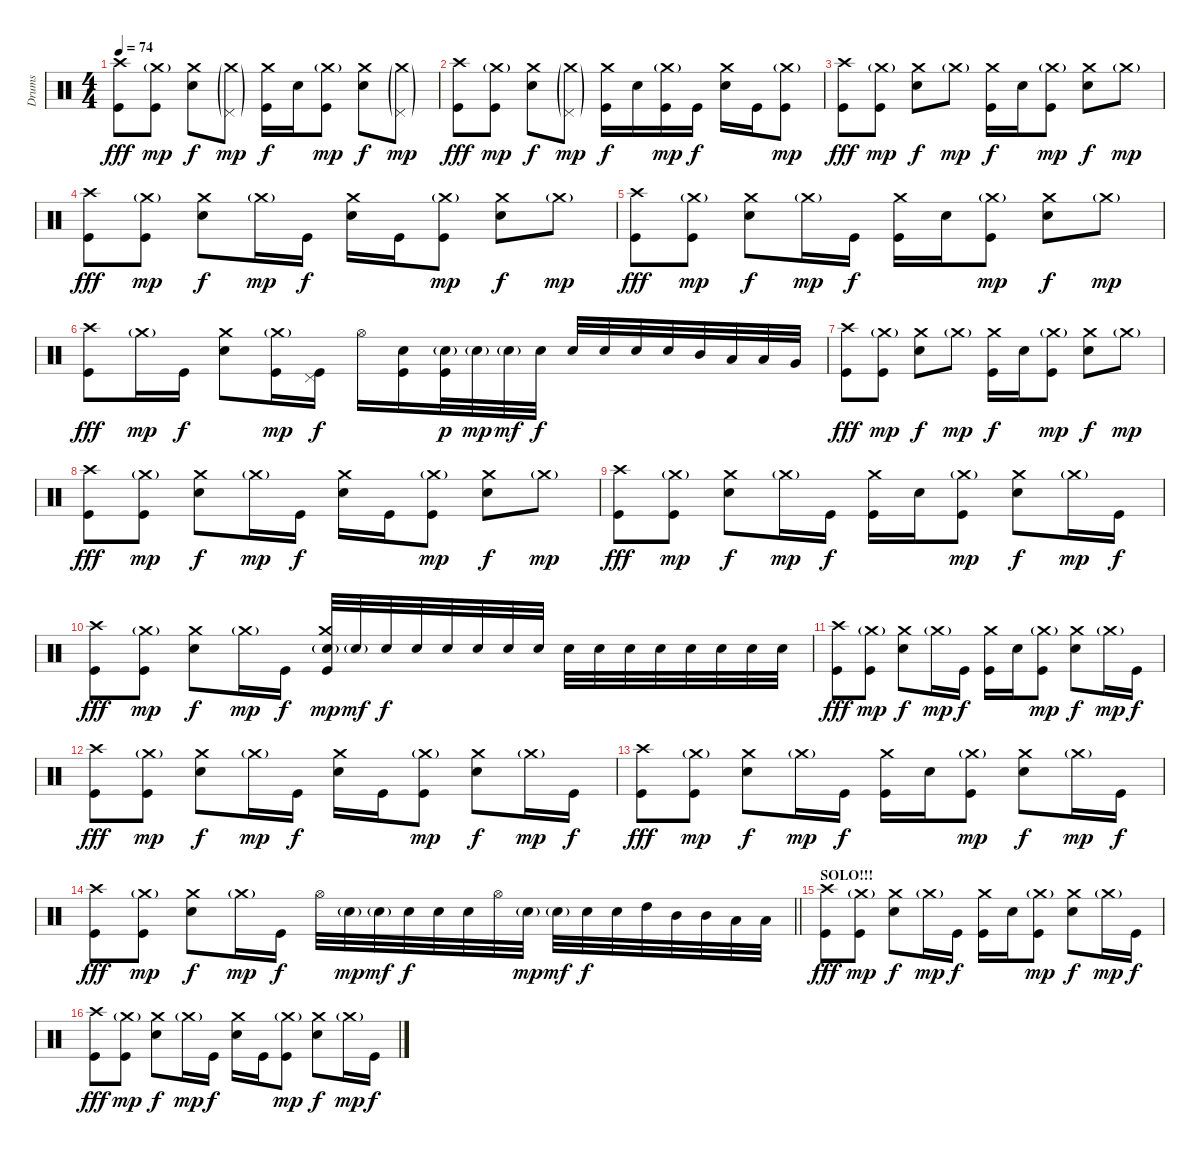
\track ("Drums" "Drums") {instrument percussion}
\staff {score}
\articulation defaults
\ts (4 4)
\tempo 74
\clef neutral
\ks c
("Crash high (hit)" "Kick (hit)").8{dy fff} ("Crash medium (hit)"{g} "Kick (hit)").8{dy mp} ("Crash medium (hit)" "Snare (hit) 2").8{dy f} ("Crash medium (hit)"{g} "Pedal Hi-Hat (hit)"{g}).8{dy mp} ("Crash medium (hit)" "Kick (hit)").16{dy f} "Snare (hit) 2".16 ("Crash medium (hit)"{g} "Kick (hit)").8{dy mp} ("Crash medium (hit)" "Snare (hit) 2").8{dy f} ("Crash medium (hit)"{g} "Pedal Hi-Hat (hit)"{g}).8{dy mp} |
("Crash high (hit)" "Kick (hit)").8{dy fff} ("Crash medium (hit)"{g} "Kick (hit)").8{dy mp} ("Crash medium (hit)" "Snare (hit) 2").8{dy f} ("Crash medium (hit)"{g} "Pedal Hi-Hat (hit)"{g}).8{dy mp} ("Crash medium (hit)" "Kick (hit)").16{dy f} "Snare (hit) 2".16 ("Crash medium (hit)"{g} "Kick (hit)").16{dy mp} "Kick (hit)".16{dy f} ("Crash medium (hit)" "Snare (hit) 2").16 "Kick (hit)".16 ("Crash medium (hit)"{g} "Kick (hit)").8{dy mp} |
("Crash high (hit)" "Kick (hit)").8{dy fff} ("Crash medium (hit)"{g} "Kick (hit)").8{dy mp} ("Crash medium (hit)" "Snare (hit) 2").8{dy f} "Crash medium (hit)"{g}.8{dy mp} ("Crash medium (hit)" "Kick (hit)").16{dy f} "Snare (hit) 2".16 ("Crash medium (hit)"{g} "Kick (hit)").8{dy mp} ("Crash medium (hit)" "Snare (hit) 2").8{dy f} "Crash medium (hit)"{g}.8{dy mp} |
("Crash high (hit)" "Kick (hit)").8{dy fff} ("Crash medium (hit)"{g} "Kick (hit)").8{dy mp} ("Crash medium (hit)" "Snare (hit) 2").8{dy f} "Crash medium (hit)"{g}.16{dy mp} "Kick (hit)".16{dy f} ("Crash medium (hit)" "Snare (hit) 2").16 "Kick (hit)".16 ("Crash medium (hit)"{g} "Kick (hit)").8{dy mp} ("Crash medium (hit)" "Snare (hit) 2").8{dy f} "Crash medium (hit)"{g}.8{dy mp} |
("Crash high (hit)" "Kick (hit)").8{dy fff} ("Crash medium (hit)"{g} "Kick (hit)").8{dy mp} ("Crash medium (hit)" "Snare (hit) 2").8{dy f} "Crash medium (hit)"{g}.16{dy mp} "Kick (hit)".16{dy f} ("Crash medium (hit)" "Kick (hit)").16 "Snare (hit) 2".16 ("Crash medium (hit)"{g} "Kick (hit)").8{dy mp} ("Crash medium (hit)" "Snare (hit) 2").8{dy f} "Crash medium (hit)"{g}.8{dy mp} |
("Crash high (hit)" "Kick (hit)").8{dy fff} "Crash medium (hit)"{g}.16{dy mp} "Kick (hit)".16{dy f} ("Crash medium (hit)" "Snare (hit) 2").8 ("Crash medium (hit)"{g} "Kick (hit)").16{dy mp} ("Pedal Hi-Hat (hit)" "Kick (hit)").16{dy f} "Hi-Hat (open)".16 ("Snare (hit) 2" "Kick (hit)").16 ("Electric Snare (hit)"{g} "Kick (hit)").32{dy p} "Electric Snare (hit)"{g}.32{dy mp} "Electric Snare (hit)"{g}.32{dy mf} "Electric Snare (hit)".32{dy f} "Electric Snare (hit)".32 "Electric Snare (hit)".32 "Electric Snare (hit)".32 "Electric Snare (hit)".32 "Mid Tom (hit)".32 "Low Tom (hit)".32 "Low Tom (hit)".32 "Very Low Tom (hit)".32 |
("Crash high (hit)" "Kick (hit)").8{dy fff} ("Crash medium (hit)"{g} "Kick (hit)").8{dy mp} ("Crash medium (hit)" "Snare (hit) 2").8{dy f} "Crash medium (hit)"{g}.8{dy mp} ("Crash medium (hit)" "Kick (hit)").16{dy f} "Snare (hit) 2".16 ("Crash medium (hit)"{g} "Kick (hit)").8{dy mp} ("Crash medium (hit)" "Snare (hit) 2").8{dy f} "Crash medium (hit)"{g}.8{dy mp} |
("Crash high (hit)" "Kick (hit)").8{dy fff} ("Crash medium (hit)"{g} "Kick (hit)").8{dy mp} ("Crash medium (hit)" "Snare (hit) 2").8{dy f} "Crash medium (hit)"{g}.16{dy mp} "Kick (hit)".16{dy f} ("Crash medium (hit)" "Snare (hit) 2").16 "Kick (hit)".16 ("Crash medium (hit)"{g} "Kick (hit)").8{dy mp} ("Crash medium (hit)" "Snare (hit) 2").8{dy f} "Crash medium (hit)"{g}.8{dy mp} |
("Crash high (hit)" "Kick (hit)").8{dy fff} ("Crash medium (hit)"{g} "Kick (hit)").8{dy mp} ("Crash medium (hit)" "Snare (hit) 2").8{dy f} "Crash medium (hit)"{g}.16{dy mp} "Kick (hit)".16{dy f} ("Crash medium (hit)" "Kick (hit)").16 "Snare (hit) 2".16 ("Crash medium (hit)"{g} "Kick (hit)").8{dy mp} ("Crash medium (hit)" "Snare (hit) 2").8{dy f} "Crash medium (hit)"{g}.16{dy mp} "Kick (hit)".16{dy f} |
("Crash high (hit)" "Kick (hit)").8{dy fff} ("Crash medium (hit)"{g} "Kick (hit)").8{dy mp} ("Crash medium (hit)" "Snare (hit) 2").8{dy f} "Crash medium (hit)"{g}.16{dy mp} "Kick (hit)".16{dy f} ("Crash medium (hit)" "Electric Snare (hit)"{g} "Kick (hit)").32{dy mp} "Electric Snare (hit)"{g}.32{dy mf} "Electric Snare (hit)".32{dy f} "Electric Snare (hit)".32 "Electric Snare (hit)".32 "Electric Snare (hit)".32 "Electric Snare (hit)".32 "Electric Snare (hit)".32 "Electric Snare (hit)".32 "Electric Snare (hit)".32 "Electric Snare (hit)".32 "Electric Snare (hit)".32 "Electric Snare (hit)".32 "Electric Snare (hit)".32 "Electric Snare (hit)".32 "Electric Snare (hit)".32 |
("Crash high (hit)" "Kick (hit)").8{dy fff} ("Crash medium (hit)"{g} "Kick (hit)").8{dy mp} ("Crash medium (hit)" "Snare (hit) 2").8{dy f} "Crash medium (hit)"{g}.16{dy mp} "Kick (hit)".16{dy f} ("Crash medium (hit)" "Kick (hit)").16 "Snare (hit) 2".16 ("Crash medium (hit)"{g} "Kick (hit)").8{dy mp} ("Crash medium (hit)" "Snare (hit) 2").8{dy f} "Crash medium (hit)"{g}.16{dy mp} "Kick (hit)".16{dy f} |
("Crash high (hit)" "Kick (hit)").8{dy fff} ("Crash medium (hit)"{g} "Kick (hit)").8{dy mp} ("Crash medium (hit)" "Snare (hit) 2").8{dy f} "Crash medium (hit)"{g}.16{dy mp} "Kick (hit)".16{dy f} ("Crash medium (hit)" "Snare (hit) 2").16 "Kick (hit)".16 ("Crash medium (hit)"{g} "Kick (hit)").8{dy mp} ("Crash medium (hit)" "Snare (hit) 2").8{dy f} "Crash medium (hit)"{g}.16{dy mp} "Kick (hit)".16{dy f} |
("Crash high (hit)" "Kick (hit)").8{dy fff} ("Crash medium (hit)"{g} "Kick (hit)").8{dy mp} ("Crash medium (hit)" "Snare (hit) 2").8{dy f} "Crash medium (hit)"{g}.16{dy mp} "Kick (hit)".16{dy f} ("Crash medium (hit)" "Kick (hit)").16 "Snare (hit) 2".16 ("Crash medium (hit)"{g} "Kick (hit)").8{dy mp} ("Crash medium (hit)" "Snare (hit) 2").8{dy f} "Crash medium (hit)"{g}.16{dy mp} "Kick (hit)".16{dy f} |
\barLineRight lightlight
("Crash high (hit)" "Kick (hit)").8{dy fff} ("Crash medium (hit)"{g} "Kick (hit)").8{dy mp} ("Crash medium (hit)" "Snare (hit) 2").8{dy f} "Crash medium (hit)"{g}.16{dy mp} "Kick (hit)".16{dy f} "Hi-Hat (open)".32 "Electric Snare (hit)"{g}.32{dy mp} "Electric Snare (hit)"{g}.32{dy mf} "Electric Snare (hit)".32{dy f} "Electric Snare (hit)".32 "Electric Snare (hit)".32 "Hi-Hat (open)".32 "Electric Snare (hit)"{g}.32{dy mp} "Electric Snare (hit)"{g}.32{dy mf} "Electric Snare (hit)".32{dy f} "Electric Snare (hit)".32 "High Tom (hit)".32 "Mid Tom (hit)".32 "Mid Tom (hit)".32 "Low Tom (hit)".32 "Low Tom (hit)".32 |
\section ("" "SOLO!!!")
("Crash high (hit)" "Kick (hit)").8{dy fff} ("Crash medium (hit)"{g} "Kick (hit)").8{dy mp} ("Crash medium (hit)" "Snare (hit) 2").8{dy f} "Crash medium (hit)"{g}.16{dy mp} "Kick (hit)".16{dy f} ("Crash medium (hit)" "Kick (hit)").16 "Snare (hit) 2".16 ("Crash medium (hit)"{g} "Kick (hit)").8{dy mp} ("Crash medium (hit)" "Snare (hit) 2").8{dy f} "Crash medium (hit)"{g}.16{dy mp} "Kick (hit)".16{dy f} |
("Crash high (hit)" "Kick (hit)").8{dy fff} ("Crash medium (hit)"{g} "Kick (hit)").8{dy mp} ("Crash medium (hit)" "Snare (hit) 2").8{dy f} "Crash medium (hit)"{g}.16{dy mp} "Kick (hit)".16{dy f} ("Crash medium (hit)" "Snare (hit) 2").16 "Kick (hit)".16 ("Crash medium (hit)"{g} "Kick (hit)").8{dy mp} ("Crash medium (hit)" "Snare (hit) 2").8{dy f} "Crash medium (hit)"{g}.16{dy mp} "Kick (hit)".16{dy f}
